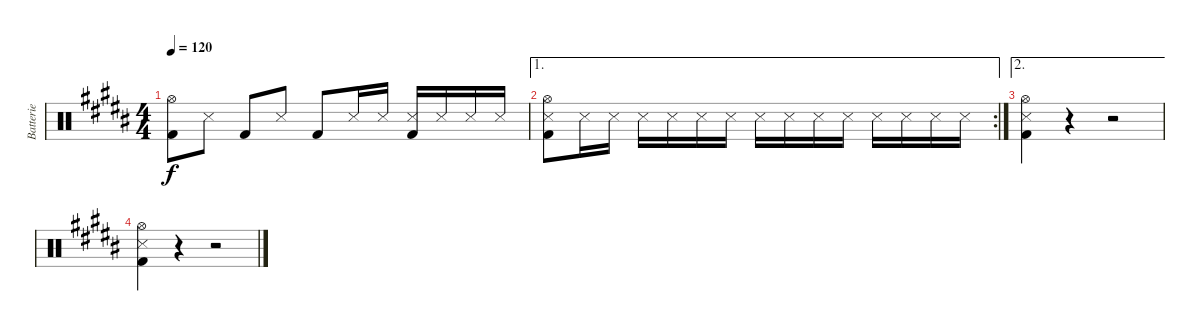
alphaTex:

\track ("Batterie" "Batterie") {instrument percussion}
\staff {score}
\articulation defaults
\ts (4 4)
\tempo 120
\clef neutral
\ks b
("Hi-Hat (open)" "Kick (hit) 2").8{dy f} "Snare (side stick) 3".8 "Kick (hit) 2".8 "Snare (side stick) 3".8 "Kick (hit) 2".8 "Snare (side stick) 3".16 "Snare (side stick) 3".16 ("Snare (side stick) 3" "Kick (hit) 2").16 "Snare (side stick) 3".16 "Snare (side stick) 3".16 "Snare (side stick) 3".16 |
\ae 1
\rc 2
("Hi-Hat (open)" "Snare (side stick) 3" "Kick (hit) 2").8 "Snare (side stick) 3".16 "Snare (side stick) 3".16 "Snare (side stick) 3".16 "Snare (side stick) 3".16 "Snare (side stick) 3".16 "Snare (side stick) 3".16 "Snare (side stick) 3".16 "Snare (side stick) 3".16 "Snare (side stick) 3".16 "Snare (side stick) 3".16 "Snare (side stick) 3".16 "Snare (side stick) 3".16 "Snare (side stick) 3".16 "Snare (side stick) 3".16 |
\ae 2
("Hi-Hat (open)" "Snare (side stick) 3" "Kick (hit) 2").4 r.4 r.2 |
("Hi-Hat (open)" "Snare (side stick) 3" "Kick (hit) 2").4 r.4 r.2
